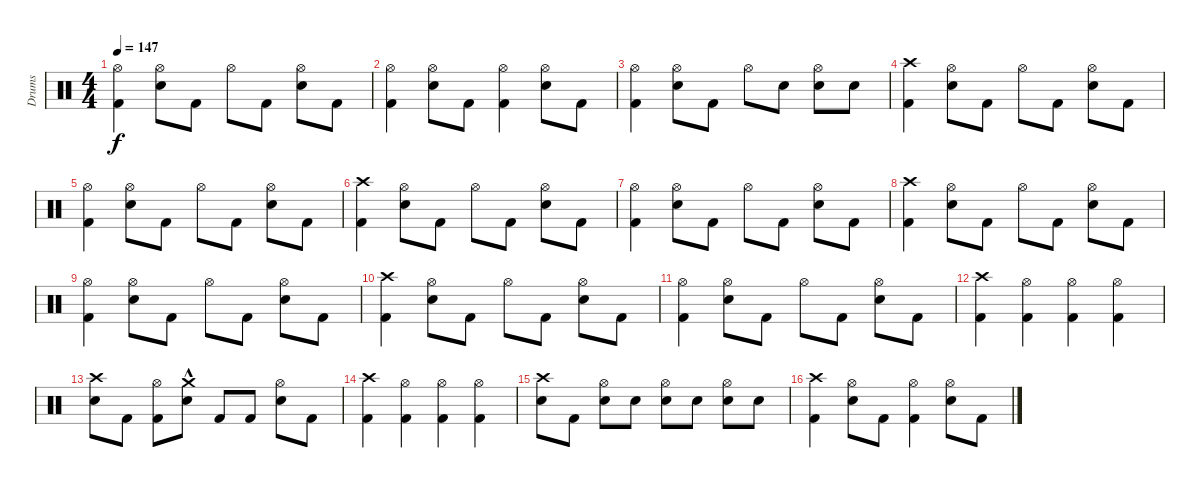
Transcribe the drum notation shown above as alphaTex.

\track ("Drums" "Drums") {instrument percussion}
\staff {score}
\articulation defaults
\ts (4 4)
\tempo 147
\clef neutral
\ks c
("Kick (hit) 2" "Hi-Hat (open)").4{dy f} ("Electric Snare (hit)" "Hi-Hat (open)").8 "Kick (hit) 2".8 "Hi-Hat (open)".8 "Kick (hit) 2".8 ("Electric Snare (hit)" "Hi-Hat (open)").8 "Kick (hit) 2".8 |
("Kick (hit) 2" "Hi-Hat (open)").4 ("Electric Snare (hit)" "Hi-Hat (open)").8 "Kick (hit) 2".8 ("Kick (hit) 2" "Hi-Hat (open)").4 ("Electric Snare (hit)" "Hi-Hat (open)").8 "Kick (hit) 2".8 |
("Kick (hit) 2" "Hi-Hat (open)").4 ("Electric Snare (hit)" "Hi-Hat (open)").8 "Kick (hit) 2".8 "Hi-Hat (open)".8 "Electric Snare (hit)".8 ("Electric Snare (hit)" "Hi-Hat (open)").8 "Electric Snare (hit)".8 |
("Kick (hit) 2" "Crash high (hit)").4 ("Electric Snare (hit)" "Hi-Hat (open)").8 "Kick (hit) 2".8 "Hi-Hat (open)".8 "Kick (hit) 2".8 ("Electric Snare (hit)" "Hi-Hat (open)").8 "Kick (hit) 2".8 |
("Kick (hit) 2" "Hi-Hat (open)").4 ("Electric Snare (hit)" "Hi-Hat (open)").8 "Kick (hit) 2".8 "Hi-Hat (open)".8 "Kick (hit) 2".8 ("Electric Snare (hit)" "Hi-Hat (open)").8 "Kick (hit) 2".8 |
("Kick (hit) 2" "Crash high (hit)").4 ("Electric Snare (hit)" "Hi-Hat (open)").8 "Kick (hit) 2".8 "Hi-Hat (open)".8 "Kick (hit) 2".8 ("Electric Snare (hit)" "Hi-Hat (open)").8 "Kick (hit) 2".8 |
("Kick (hit) 2" "Hi-Hat (open)").4 ("Electric Snare (hit)" "Hi-Hat (open)").8 "Kick (hit) 2".8 "Hi-Hat (open)".8 "Kick (hit) 2".8 ("Electric Snare (hit)" "Hi-Hat (open)").8 "Kick (hit) 2".8 |
("Kick (hit) 2" "Crash high (hit)").4 ("Electric Snare (hit)" "Hi-Hat (open)").8 "Kick (hit) 2".8 "Hi-Hat (open)".8 "Kick (hit) 2".8 ("Electric Snare (hit)" "Hi-Hat (open)").8 "Kick (hit) 2".8 |
("Kick (hit) 2" "Hi-Hat (open)").4 ("Electric Snare (hit)" "Hi-Hat (open)").8 "Kick (hit) 2".8 "Hi-Hat (open)".8 "Kick (hit) 2".8 ("Electric Snare (hit)" "Hi-Hat (open)").8 "Kick (hit) 2".8 |
("Kick (hit) 2" "Crash high (hit)").4 ("Electric Snare (hit)" "Hi-Hat (open)").8 "Kick (hit) 2".8 "Hi-Hat (open)".8 "Kick (hit) 2".8 ("Electric Snare (hit)" "Hi-Hat (open)").8 "Kick (hit) 2".8 |
("Kick (hit) 2" "Hi-Hat (open)").4 ("Electric Snare (hit)" "Hi-Hat (open)").8 "Kick (hit) 2".8 "Hi-Hat (open)".8 "Kick (hit) 2".8 ("Electric Snare (hit)" "Hi-Hat (open)").8 "Kick (hit) 2".8 |
("Kick (hit) 2" "Crash high (hit)").4 ("Kick (hit) 2" "Hi-Hat (open)").4 ("Kick (hit) 2" "Hi-Hat (open)").4 ("Kick (hit) 2" "Hi-Hat (open)").4 |
("Electric Snare (hit)" "Crash high (hit)").8 "Kick (hit) 2".8 ("Kick (hit) 2" "Hi-Hat (open)").8 ("Electric Snare (hit)" "Crash medium (hit)"{hac}).8 "Kick (hit) 2".8 "Kick (hit) 2".8 ("Electric Snare (hit)" "Hi-Hat (open)").8 "Kick (hit) 2".8 |
("Kick (hit) 2" "Crash high (hit)").4 ("Kick (hit) 2" "Hi-Hat (open)").4 ("Kick (hit) 2" "Hi-Hat (open)").4 ("Kick (hit) 2" "Hi-Hat (open)").4 |
("Electric Snare (hit)" "Crash high (hit)").8 "Kick (hit) 2".8 ("Electric Snare (hit)" "Hi-Hat (open)").8 "Electric Snare (hit)".8 ("Electric Snare (hit)" "Hi-Hat (open)").8 "Electric Snare (hit)".8 ("Electric Snare (hit)" "Hi-Hat (open)").8 "Electric Snare (hit)".8 |
("Kick (hit) 2" "Crash high (hit)").4 ("Electric Snare (hit)" "Hi-Hat (open)").8 "Kick (hit) 2".8 ("Kick (hit) 2" "Hi-Hat (open)").4 ("Electric Snare (hit)" "Hi-Hat (open)").8 "Kick (hit) 2".8
